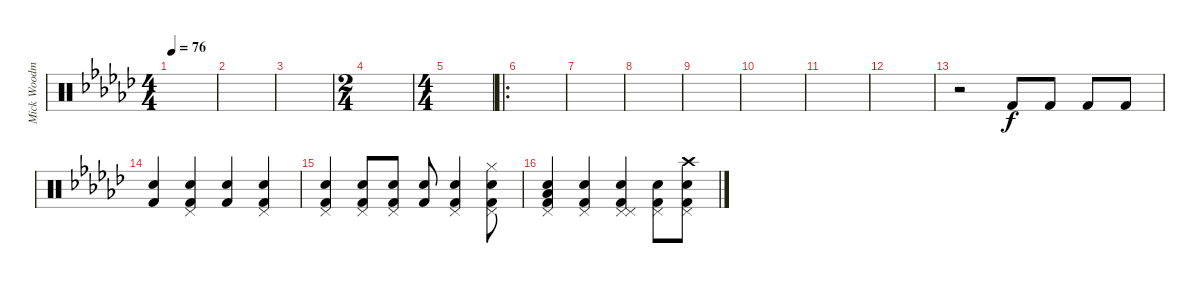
\track ("Mick Woodmansey-Drums" "Mick Woodm") {instrument percussion}
\staff {score}
\articulation defaults
\ts (4 4)
\tempo 76
\clef neutral
\ks gb
|
|
|
\ts (2 4)
|
\ts (4 4)
|
\ro
|
|
|
|
|
|
|
r.2 "Kick (hit) 2".8 "Kick (hit) 2".8 "Kick (hit) 2".8 "Kick (hit) 2".8 |
("Electric Snare (hit)" "Kick (hit) 2").4 ("Electric Snare (hit)" "Pedal Hi-Hat (hit)" "Kick (hit) 2").4 ("Electric Snare (hit)" "Kick (hit) 2").4 ("Electric Snare (hit)" "Pedal Hi-Hat (hit)" "Kick (hit) 2").4 |
("Pedal Hi-Hat (hit)" "Snare (hit) 2" "Kick (hit) 2").4 ("Snare (hit) 2" "Pedal Hi-Hat (hit)" "Kick (hit) 2").8 ("Pedal Hi-Hat (hit)" "Snare (hit) 2" "Kick (hit) 2").8 ("Snare (hit) 2" "Kick (hit) 2").8 ("Snare (hit) 2" "Pedal Hi-Hat (hit)" "Kick (hit) 2").4 ("Hi-Hat (closed)" "Pedal Hi-Hat (hit)" "Snare (hit) 2" "Kick (hit) 2").8 |
("Pedal Hi-Hat (hit)" "Low Floor Tom (hit)" "Snare (hit) 2" "Kick (hit) 2").4 ("Snare (hit) 2" "Pedal Hi-Hat (hit)" "Kick (hit) 2").4 ("Pedal Hi-Hat (hit)" "Snare (hit) 2" "Pedal Hi-Hat (hit)" "Kick (hit) 2").4 ("Pedal Hi-Hat (hit)" "Snare (hit) 2" "Kick (hit) 2").8 ("Pedal Hi-Hat (hit)" "Snare (hit) 2" "Crash high (hit)" "Kick (hit) 2").8
